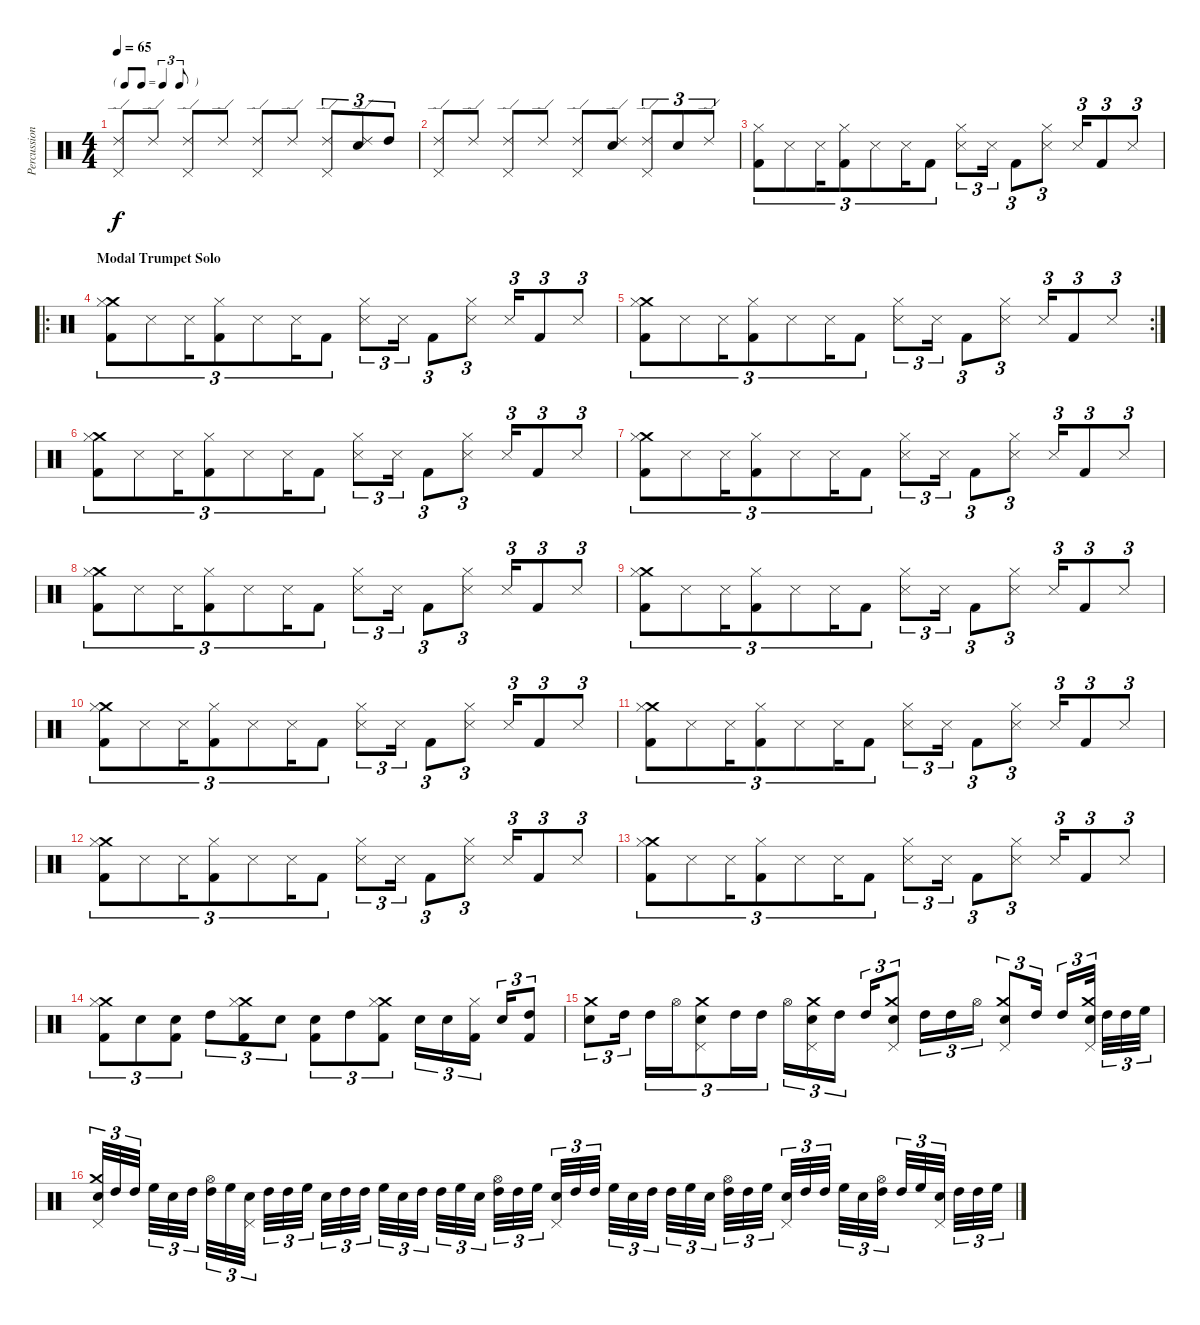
\track ("Percussion" "Percussion") {instrument percussion}
\staff {score}
\articulation defaults
\ts (4 4)
\tf triplet8th
\tempo 65
\clef neutral
\ks c
("Ride (edge) 2" "Pedal Hi-Hat (hit)").8{dy f} "Ride (edge) 2".8 ("Ride (edge) 2" "Pedal Hi-Hat (hit)").8 "Ride (edge) 2".8 ("Ride (edge) 2" "Pedal Hi-Hat (hit)").8 "Ride (edge) 2".8 ("Ride (edge) 2" "Pedal Hi-Hat (hit)").8{tu (3 2)} ("Ride (edge) 2" "Snare (hit) 2").8{tu (3 2)} "High Tom (hit)".8{tu (3 2)} |
("Ride (edge) 2" "Pedal Hi-Hat (hit)").8 "Ride (edge) 2".8 ("Ride (edge) 2" "Pedal Hi-Hat (hit)").8 "Ride (edge) 2".8 ("Ride (edge) 2" "Pedal Hi-Hat (hit)").8 ("Ride (edge) 2" "Snare (hit) 2").8 ("Ride (edge) 2" "Pedal Hi-Hat (hit)").8{tu (3 2)} "Snare (hit) 2".8{tu (3 2)} "Ride (edge) 2".8{tu (3 2)} |
("Hi-Hat (closed)" "Kick (hit) 2").8{tu (3 2)} "Snare (side stick) 3".8{tu (3 2)} "Snare (side stick) 3".16{tu (3 2)} ("Hi-Hat (closed)" "Kick (hit) 2").8{tu (3 2)} "Snare (side stick) 3".8{tu (3 2)} "Snare (side stick) 3".16{tu (3 2)} "Kick (hit) 2".8{tu (3 2)} ("Hi-Hat (closed)" "Snare (side stick) 3").8{tu (3 2)} "Snare (side stick) 3".16{tu (3 2)} "Kick (hit) 2".8{tu (3 2)} ("Hi-Hat (closed)" "Snare (side stick) 3").8{tu (3 2)} "Snare (side stick) 3".16{tu (3 2)} "Kick (hit) 2".8{tu (3 2)} "Snare (side stick) 3".8{tu (3 2)} |
\ro
\section ("" "Modal Trumpet Solo")
("Crash medium (hit)" "Hi-Hat (closed)" "Kick (hit) 2").8{tu (3 2)} "Snare (side stick) 3".8{tu (3 2)} "Snare (side stick) 3".16{tu (3 2)} ("Hi-Hat (closed)" "Kick (hit) 2").8{tu (3 2)} "Snare (side stick) 3".8{tu (3 2)} "Snare (side stick) 3".16{tu (3 2)} "Kick (hit) 2".8{tu (3 2)} ("Hi-Hat (closed)" "Snare (side stick) 3").8{tu (3 2)} "Snare (side stick) 3".16{tu (3 2)} "Kick (hit) 2".8{tu (3 2)} ("Hi-Hat (closed)" "Snare (side stick) 3").8{tu (3 2)} "Snare (side stick) 3".16{tu (3 2)} "Kick (hit) 2".8{tu (3 2)} "Snare (side stick) 3".8{tu (3 2)} |
\rc 2
("Crash medium (hit)" "Hi-Hat (closed)" "Kick (hit) 2").8{tu (3 2)} "Snare (side stick) 3".8{tu (3 2)} "Snare (side stick) 3".16{tu (3 2)} ("Hi-Hat (closed)" "Kick (hit) 2").8{tu (3 2)} "Snare (side stick) 3".8{tu (3 2)} "Snare (side stick) 3".16{tu (3 2)} "Kick (hit) 2".8{tu (3 2)} ("Hi-Hat (closed)" "Snare (side stick) 3").8{tu (3 2)} "Snare (side stick) 3".16{tu (3 2)} "Kick (hit) 2".8{tu (3 2)} ("Hi-Hat (closed)" "Snare (side stick) 3").8{tu (3 2)} "Snare (side stick) 3".16{tu (3 2)} "Kick (hit) 2".8{tu (3 2)} "Snare (side stick) 3".8{tu (3 2)} |
("Crash medium (hit)" "Hi-Hat (closed)" "Kick (hit) 2").8{tu (3 2)} "Snare (side stick) 3".8{tu (3 2)} "Snare (side stick) 3".16{tu (3 2)} ("Hi-Hat (closed)" "Kick (hit) 2").8{tu (3 2)} "Snare (side stick) 3".8{tu (3 2)} "Snare (side stick) 3".16{tu (3 2)} "Kick (hit) 2".8{tu (3 2)} ("Hi-Hat (closed)" "Snare (side stick) 3").8{tu (3 2)} "Snare (side stick) 3".16{tu (3 2)} "Kick (hit) 2".8{tu (3 2)} ("Hi-Hat (closed)" "Snare (side stick) 3").8{tu (3 2)} "Snare (side stick) 3".16{tu (3 2)} "Kick (hit) 2".8{tu (3 2)} "Snare (side stick) 3".8{tu (3 2)} |
("Crash medium (hit)" "Hi-Hat (closed)" "Kick (hit) 2").8{tu (3 2)} "Snare (side stick) 3".8{tu (3 2)} "Snare (side stick) 3".16{tu (3 2)} ("Hi-Hat (closed)" "Kick (hit) 2").8{tu (3 2)} "Snare (side stick) 3".8{tu (3 2)} "Snare (side stick) 3".16{tu (3 2)} "Kick (hit) 2".8{tu (3 2)} ("Hi-Hat (closed)" "Snare (side stick) 3").8{tu (3 2)} "Snare (side stick) 3".16{tu (3 2)} "Kick (hit) 2".8{tu (3 2)} ("Hi-Hat (closed)" "Snare (side stick) 3").8{tu (3 2)} "Snare (side stick) 3".16{tu (3 2)} "Kick (hit) 2".8{tu (3 2)} "Snare (side stick) 3".8{tu (3 2)} |
("Crash medium (hit)" "Hi-Hat (closed)" "Kick (hit) 2").8{tu (3 2)} "Snare (side stick) 3".8{tu (3 2)} "Snare (side stick) 3".16{tu (3 2)} ("Hi-Hat (closed)" "Kick (hit) 2").8{tu (3 2)} "Snare (side stick) 3".8{tu (3 2)} "Snare (side stick) 3".16{tu (3 2)} "Kick (hit) 2".8{tu (3 2)} ("Hi-Hat (closed)" "Snare (side stick) 3").8{tu (3 2)} "Snare (side stick) 3".16{tu (3 2)} "Kick (hit) 2".8{tu (3 2)} ("Hi-Hat (closed)" "Snare (side stick) 3").8{tu (3 2)} "Snare (side stick) 3".16{tu (3 2)} "Kick (hit) 2".8{tu (3 2)} "Snare (side stick) 3".8{tu (3 2)} |
("Crash medium (hit)" "Hi-Hat (closed)" "Kick (hit) 2").8{tu (3 2)} "Snare (side stick) 3".8{tu (3 2)} "Snare (side stick) 3".16{tu (3 2)} ("Hi-Hat (closed)" "Kick (hit) 2").8{tu (3 2)} "Snare (side stick) 3".8{tu (3 2)} "Snare (side stick) 3".16{tu (3 2)} "Kick (hit) 2".8{tu (3 2)} ("Hi-Hat (closed)" "Snare (side stick) 3").8{tu (3 2)} "Snare (side stick) 3".16{tu (3 2)} "Kick (hit) 2".8{tu (3 2)} ("Hi-Hat (closed)" "Snare (side stick) 3").8{tu (3 2)} "Snare (side stick) 3".16{tu (3 2)} "Kick (hit) 2".8{tu (3 2)} "Snare (side stick) 3".8{tu (3 2)} |
("Crash medium (hit)" "Hi-Hat (closed)" "Kick (hit) 2").8{tu (3 2)} "Snare (side stick) 3".8{tu (3 2)} "Snare (side stick) 3".16{tu (3 2)} ("Hi-Hat (closed)" "Kick (hit) 2").8{tu (3 2)} "Snare (side stick) 3".8{tu (3 2)} "Snare (side stick) 3".16{tu (3 2)} "Kick (hit) 2".8{tu (3 2)} ("Hi-Hat (closed)" "Snare (side stick) 3").8{tu (3 2)} "Snare (side stick) 3".16{tu (3 2)} "Kick (hit) 2".8{tu (3 2)} ("Hi-Hat (closed)" "Snare (side stick) 3").8{tu (3 2)} "Snare (side stick) 3".16{tu (3 2)} "Kick (hit) 2".8{tu (3 2)} "Snare (side stick) 3".8{tu (3 2)} |
("Crash medium (hit)" "Hi-Hat (closed)" "Kick (hit) 2").8{tu (3 2)} "Snare (side stick) 3".8{tu (3 2)} "Snare (side stick) 3".16{tu (3 2)} ("Hi-Hat (closed)" "Kick (hit) 2").8{tu (3 2)} "Snare (side stick) 3".8{tu (3 2)} "Snare (side stick) 3".16{tu (3 2)} "Kick (hit) 2".8{tu (3 2)} ("Hi-Hat (closed)" "Snare (side stick) 3").8{tu (3 2)} "Snare (side stick) 3".16{tu (3 2)} "Kick (hit) 2".8{tu (3 2)} ("Hi-Hat (closed)" "Snare (side stick) 3").8{tu (3 2)} "Snare (side stick) 3".16{tu (3 2)} "Kick (hit) 2".8{tu (3 2)} "Snare (side stick) 3".8{tu (3 2)} |
("Crash medium (hit)" "Hi-Hat (closed)" "Kick (hit) 2").8{tu (3 2)} "Snare (side stick) 3".8{tu (3 2)} "Snare (side stick) 3".16{tu (3 2)} ("Hi-Hat (closed)" "Kick (hit) 2").8{tu (3 2)} "Snare (side stick) 3".8{tu (3 2)} "Snare (side stick) 3".16{tu (3 2)} "Kick (hit) 2".8{tu (3 2)} ("Hi-Hat (closed)" "Snare (side stick) 3").8{tu (3 2)} "Snare (side stick) 3".16{tu (3 2)} "Kick (hit) 2".8{tu (3 2)} ("Hi-Hat (closed)" "Snare (side stick) 3").8{tu (3 2)} "Snare (side stick) 3".16{tu (3 2)} "Kick (hit) 2".8{tu (3 2)} "Snare (side stick) 3".8{tu (3 2)} |
("Crash medium (hit)" "Hi-Hat (closed)" "Kick (hit) 2").8{tu (3 2)} "Snare (side stick) 3".8{tu (3 2)} "Snare (side stick) 3".16{tu (3 2)} ("Hi-Hat (closed)" "Kick (hit) 2").8{tu (3 2)} "Snare (side stick) 3".8{tu (3 2)} "Snare (side stick) 3".16{tu (3 2)} "Kick (hit) 2".8{tu (3 2)} ("Hi-Hat (closed)" "Snare (side stick) 3").8{tu (3 2)} "Snare (side stick) 3".16{tu (3 2)} "Kick (hit) 2".8{tu (3 2)} ("Hi-Hat (closed)" "Snare (side stick) 3").8{tu (3 2)} "Snare (side stick) 3".16{tu (3 2)} "Kick (hit) 2".8{tu (3 2)} "Snare (side stick) 3".8{tu (3 2)} |
("Crash medium (hit)" "Hi-Hat (closed)" "Kick (hit) 2").8{tu (3 2)} "Electric Snare (hit)".8{tu (3 2)} ("Electric Snare (hit)" "Kick (hit) 2").8{tu (3 2)} "High Tom (hit)".8{tu (3 2)} ("Crash medium (hit)" "Hi-Hat (closed)" "Kick (hit) 2").8{tu (3 2)} "Electric Snare (hit)".8{tu (3 2)} ("Electric Snare (hit)" "Kick (hit) 2").8{tu (3 2)} "High Tom (hit)".8{tu (3 2)} ("Crash medium (hit)" "Hi-Hat (closed)" "Kick (hit) 2").8{tu (3 2)} "Electric Snare (hit)".16{tu (3 2)} "Electric Snare (hit)".16{tu (3 2)} ("Hi-Hat (closed)" "Kick (hit) 2").16{tu (3 2)} "Electric Snare (hit)".16{tu (3 2)} ("High Tom (hit)" "Kick (hit) 2").8{tu (3 2)} |
("Crash medium (hit)" "Electric Snare (hit)").8{tu (3 2)} "High Tom (hit)".16{tu (3 2)} "High Tom (hit)".16{tu (3 2)} "Hi-Hat (open)".16{tu (3 2)} ("Crash medium (hit)" "Pedal Hi-Hat (hit)" "Electric Snare (hit)").8{tu (3 2)} "High Tom (hit)".16{tu (3 2)} "High Tom (hit)".16{tu (3 2)} "Hi-Hat (open)".16{tu (3 2)} ("Crash medium (hit)" "Pedal Hi-Hat (hit)" "Electric Snare (hit)").16{tu (3 2)} "High Tom (hit)".16{tu (3 2)} "High Tom (hit)".16{tu (3 2)} ("Crash medium (hit)" "Pedal Hi-Hat (hit)" "Electric Snare (hit)").8{tu (3 2)} "High Tom (hit)".16{tu (3 2)} "High Tom (hit)".16{tu (3 2)} "Hi-Hat (open)".16{tu (3 2)} ("Crash medium (hit)" "Pedal Hi-Hat (hit)" "Electric Snare (hit)").8{tu (3 2)} "High Tom (hit)".16{tu (3 2)} "High Tom (hit)".16{tu (3 2)} ("Crash medium (hit)" "Pedal Hi-Hat (hit)" "Electric Snare (hit)").32{tu (3 2)} "High Tom (hit)".32{tu (3 2)} "High Tom (hit)".32{tu (3 2)} "High Floor Tom (hit)".32{tu (3 2)} |
("Crash medium (hit)" "Pedal Hi-Hat (hit)" "Electric Snare (hit)").32{tu (3 2)} "High Tom (hit)".32{tu (3 2)} "High Tom (hit)".32{tu (3 2)} "High Floor Tom (hit)".32{tu (3 2)} "Electric Snare (hit)".32{tu (3 2)} "High Tom (hit)".32{tu (3 2)} ("Hi-Hat (open)" "High Tom (hit)").32{tu (3 2)} "High Floor Tom (hit)".32{tu (3 2)} ("Pedal Hi-Hat (hit)" "Electric Snare (hit)").32{tu (3 2)} "High Tom (hit)".32{tu (3 2)} "High Tom (hit)".32{tu (3 2)} "High Floor Tom (hit)".32{tu (3 2)} "Electric Snare (hit)".32{tu (3 2)} "High Tom (hit)".32{tu (3 2)} "High Tom (hit)".32{tu (3 2)} "High Floor Tom (hit)".32{tu (3 2)} "Electric Snare (hit)".32{tu (3 2)} "High Tom (hit)".32{tu (3 2)} "High Tom (hit)".32{tu (3 2)} "High Floor Tom (hit)".32{tu (3 2)} "Electric Snare (hit)".32{tu (3 2)} ("Hi-Hat (open)" "High Tom (hit)").32{tu (3 2)} "High Tom (hit)".32{tu (3 2)} "High Floor Tom (hit)".32{tu (3 2)} ("Pedal Hi-Hat (hit)" "Electric Snare (hit)").32{tu (3 2)} "High Tom (hit)".32{tu (3 2)} "High Tom (hit)".32{tu (3 2)} "High Floor Tom (hit)".32{tu (3 2)} "Electric Snare (hit)".32{tu (3 2)} "High Tom (hit)".32{tu (3 2)} "High Tom (hit)".32{tu (3 2)} "High Floor Tom (hit)".32{tu (3 2)} "Electric Snare (hit)".32{tu (3 2)} ("Hi-Hat (open)" "High Tom (hit)").32{tu (3 2)} "High Tom (hit)".32{tu (3 2)} "High Floor Tom (hit)".32{tu (3 2)} ("Pedal Hi-Hat (hit)" "Electric Snare (hit)").32{tu (3 2)} "High Tom (hit)".32{tu (3 2)} "High Tom (hit)".32{tu (3 2)} "High Floor Tom (hit)".32{tu (3 2)} "Electric Snare (hit)".32{tu (3 2)} ("Hi-Hat (open)" "High Tom (hit)").32{tu (3 2)} "High Tom (hit)".32{tu (3 2)} "High Floor Tom (hit)".32{tu (3 2)} ("Pedal Hi-Hat (hit)" "Electric Snare (hit)").32{tu (3 2)} "High Tom (hit)".32{tu (3 2)} "High Tom (hit)".32{tu (3 2)} "High Floor Tom (hit)".32{tu (3 2)}
